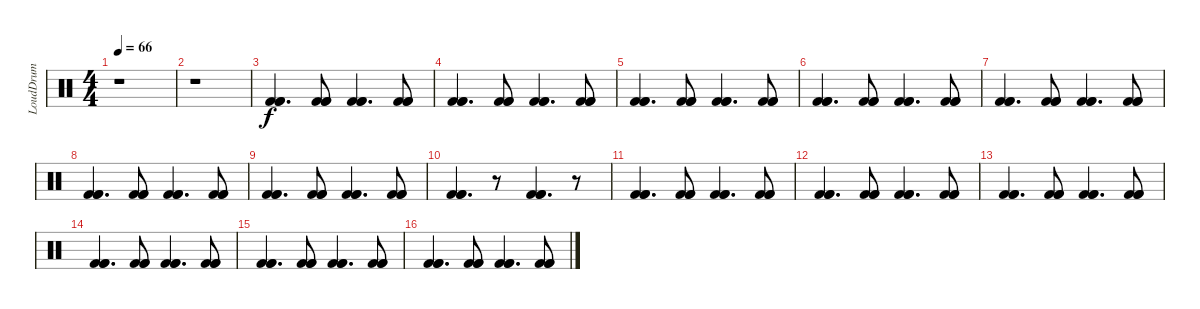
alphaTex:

\track ("LoudDrum" "LoudDrum") {instrument percussion}
\staff {score}
\articulation defaults
\ts (4 4)
\tempo 66
\clef neutral
\ks c
r.1{dy f} |
r.1 |
("Kick (hit) 2" "Kick (hit) 2" "Kick (hit) 2").4{d} ("Kick (hit) 2" "Kick (hit) 2" "Kick (hit) 2").8 ("Kick (hit) 2" "Kick (hit) 2" "Kick (hit) 2").4{d} ("Kick (hit) 2" "Kick (hit) 2" "Kick (hit) 2").8 |
("Kick (hit) 2" "Kick (hit) 2" "Kick (hit) 2").4{d} ("Kick (hit) 2" "Kick (hit) 2" "Kick (hit) 2").8 ("Kick (hit) 2" "Kick (hit) 2" "Kick (hit) 2").4{d} ("Kick (hit) 2" "Kick (hit) 2" "Kick (hit) 2").8 |
("Kick (hit) 2" "Kick (hit) 2" "Kick (hit) 2").4{d} ("Kick (hit) 2" "Kick (hit) 2" "Kick (hit) 2").8 ("Kick (hit) 2" "Kick (hit) 2" "Kick (hit) 2").4{d} ("Kick (hit) 2" "Kick (hit) 2" "Kick (hit) 2").8 |
("Kick (hit) 2" "Kick (hit) 2" "Kick (hit) 2").4{d} ("Kick (hit) 2" "Kick (hit) 2" "Kick (hit) 2").8 ("Kick (hit) 2" "Kick (hit) 2" "Kick (hit) 2").4{d} ("Kick (hit) 2" "Kick (hit) 2" "Kick (hit) 2").8 |
("Kick (hit) 2" "Kick (hit) 2" "Kick (hit) 2").4{d} ("Kick (hit) 2" "Kick (hit) 2" "Kick (hit) 2").8 ("Kick (hit) 2" "Kick (hit) 2" "Kick (hit) 2").4{d} ("Kick (hit) 2" "Kick (hit) 2" "Kick (hit) 2").8 |
("Kick (hit) 2" "Kick (hit) 2" "Kick (hit) 2").4{d} ("Kick (hit) 2" "Kick (hit) 2" "Kick (hit) 2").8 ("Kick (hit) 2" "Kick (hit) 2" "Kick (hit) 2").4{d} ("Kick (hit) 2" "Kick (hit) 2" "Kick (hit) 2").8 |
("Kick (hit) 2" "Kick (hit) 2" "Kick (hit) 2").4{d} ("Kick (hit) 2" "Kick (hit) 2" "Kick (hit) 2").8 ("Kick (hit) 2" "Kick (hit) 2" "Kick (hit) 2").4{d} ("Kick (hit) 2" "Kick (hit) 2" "Kick (hit) 2").8 |
("Kick (hit) 2" "Kick (hit) 2" "Kick (hit) 2").4{d} r.8 ("Kick (hit) 2" "Kick (hit) 2" "Kick (hit) 2").4{d} r.8 |
("Kick (hit) 2" "Kick (hit) 2" "Kick (hit) 2").4{d} ("Kick (hit) 2" "Kick (hit) 2" "Kick (hit) 2").8 ("Kick (hit) 2" "Kick (hit) 2" "Kick (hit) 2").4{d} ("Kick (hit) 2" "Kick (hit) 2" "Kick (hit) 2").8 |
("Kick (hit) 2" "Kick (hit) 2" "Kick (hit) 2").4{d} ("Kick (hit) 2" "Kick (hit) 2" "Kick (hit) 2").8 ("Kick (hit) 2" "Kick (hit) 2" "Kick (hit) 2").4{d} ("Kick (hit) 2" "Kick (hit) 2" "Kick (hit) 2").8 |
("Kick (hit) 2" "Kick (hit) 2" "Kick (hit) 2").4{d} ("Kick (hit) 2" "Kick (hit) 2" "Kick (hit) 2").8 ("Kick (hit) 2" "Kick (hit) 2" "Kick (hit) 2").4{d} ("Kick (hit) 2" "Kick (hit) 2" "Kick (hit) 2").8 |
("Kick (hit) 2" "Kick (hit) 2" "Kick (hit) 2").4{d} ("Kick (hit) 2" "Kick (hit) 2" "Kick (hit) 2").8 ("Kick (hit) 2" "Kick (hit) 2" "Kick (hit) 2").4{d} ("Kick (hit) 2" "Kick (hit) 2" "Kick (hit) 2").8 |
("Kick (hit) 2" "Kick (hit) 2" "Kick (hit) 2").4{d} ("Kick (hit) 2" "Kick (hit) 2" "Kick (hit) 2").8 ("Kick (hit) 2" "Kick (hit) 2" "Kick (hit) 2").4{d} ("Kick (hit) 2" "Kick (hit) 2" "Kick (hit) 2").8 |
("Kick (hit) 2" "Kick (hit) 2" "Kick (hit) 2").4{d} ("Kick (hit) 2" "Kick (hit) 2" "Kick (hit) 2").8 ("Kick (hit) 2" "Kick (hit) 2" "Kick (hit) 2").4{d} ("Kick (hit) 2" "Kick (hit) 2" "Kick (hit) 2").8
